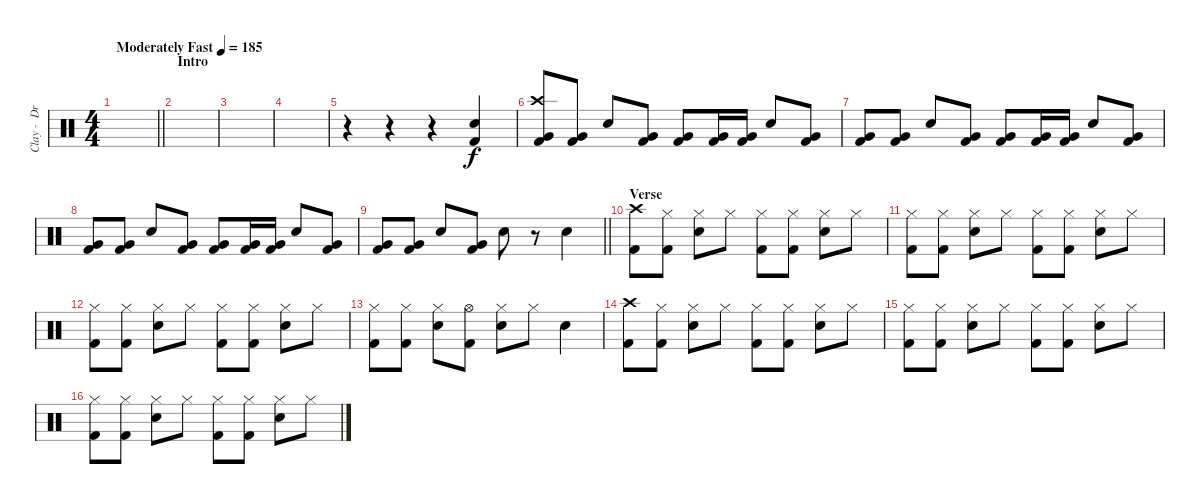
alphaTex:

\track ("Clay -  Drums" "Clay -  Dr") {instrument percussion}
\staff {score}
\articulation defaults
\ts (4 4)
\tempo (185 "Moderately Fast")
\clef neutral
\barLineRight lightlight
\ks c
|
\section ("" "Intro")
|
|
|
r.4 r.4 r.4 ("Electric Snare (hit)" "Kick (hit) 2").4 |
("Crash high (hit)" "Very Low Tom (hit)" "Kick (hit) 2").8 ("Very Low Tom (hit)" "Kick (hit) 2").8 "Electric Snare (hit)".8 ("Very Low Tom (hit)" "Kick (hit) 2").8 ("Very Low Tom (hit)" "Kick (hit) 2").8 ("Very Low Tom (hit)" "Kick (hit) 2").16 ("Very Low Tom (hit)" "Kick (hit) 2").16 "Electric Snare (hit)".8 ("Very Low Tom (hit)" "Kick (hit) 2").8 |
("Very Low Tom (hit)" "Kick (hit) 2").8 ("Very Low Tom (hit)" "Kick (hit) 2").8 "Electric Snare (hit)".8 ("Very Low Tom (hit)" "Kick (hit) 2").8 ("Very Low Tom (hit)" "Kick (hit) 2").8 ("Very Low Tom (hit)" "Kick (hit) 2").16 ("Very Low Tom (hit)" "Kick (hit) 2").16 "Electric Snare (hit)".8 ("Very Low Tom (hit)" "Kick (hit) 2").8 |
("Very Low Tom (hit)" "Kick (hit) 2").8 ("Very Low Tom (hit)" "Kick (hit) 2").8 "Electric Snare (hit)".8 ("Very Low Tom (hit)" "Kick (hit) 2").8 ("Very Low Tom (hit)" "Kick (hit) 2").8 ("Very Low Tom (hit)" "Kick (hit) 2").16 ("Very Low Tom (hit)" "Kick (hit) 2").16 "Electric Snare (hit)".8 ("Very Low Tom (hit)" "Kick (hit) 2").8 |
\barLineRight lightlight
("Very Low Tom (hit)" "Kick (hit) 2").8 ("Very Low Tom (hit)" "Kick (hit) 2").8 "Electric Snare (hit)".8 ("Very Low Tom (hit)" "Kick (hit) 2").8 "Electric Snare (hit)".8 r.8 "Electric Snare (hit)".4 |
\section ("" "Verse")
("Crash high (hit)" "Kick (hit) 2").8 ("Hi-Hat (closed)" "Kick (hit) 2").8 ("Hi-Hat (closed)" "Electric Snare (hit)").8 "Hi-Hat (closed)".8 ("Hi-Hat (closed)" "Kick (hit) 2").8 ("Hi-Hat (closed)" "Kick (hit) 2").8 ("Hi-Hat (closed)" "Electric Snare (hit)").8 "Hi-Hat (closed)".8 |
("Hi-Hat (closed)" "Kick (hit) 2").8 ("Hi-Hat (closed)" "Kick (hit) 2").8 ("Hi-Hat (closed)" "Electric Snare (hit)").8 "Hi-Hat (closed)".8 ("Hi-Hat (closed)" "Kick (hit) 2").8 ("Hi-Hat (closed)" "Kick (hit) 2").8 ("Hi-Hat (closed)" "Electric Snare (hit)").8 "Hi-Hat (closed)".8 |
("Hi-Hat (closed)" "Kick (hit) 2").8 ("Hi-Hat (closed)" "Kick (hit) 2").8 ("Hi-Hat (closed)" "Electric Snare (hit)").8 "Hi-Hat (closed)".8 ("Hi-Hat (closed)" "Kick (hit) 2").8 ("Hi-Hat (closed)" "Kick (hit) 2").8 ("Hi-Hat (closed)" "Electric Snare (hit)").8 "Hi-Hat (closed)".8 |
("Hi-Hat (closed)" "Kick (hit) 2").8 ("Hi-Hat (closed)" "Kick (hit) 2").8 ("Hi-Hat (closed)" "Electric Snare (hit)").8 ("Hi-Hat (open)" "Kick (hit) 2").8 ("Hi-Hat (closed)" "Electric Snare (hit)").8 "Hi-Hat (closed)".8 "Electric Snare (hit)".4 |
("Crash high (hit)" "Kick (hit) 2").8 ("Hi-Hat (closed)" "Kick (hit) 2").8 ("Hi-Hat (closed)" "Electric Snare (hit)").8 "Hi-Hat (closed)".8 ("Hi-Hat (closed)" "Kick (hit) 2").8 ("Hi-Hat (closed)" "Kick (hit) 2").8 ("Hi-Hat (closed)" "Electric Snare (hit)").8 "Hi-Hat (closed)".8 |
("Hi-Hat (closed)" "Kick (hit) 2").8 ("Hi-Hat (closed)" "Kick (hit) 2").8 ("Hi-Hat (closed)" "Electric Snare (hit)").8 "Hi-Hat (closed)".8 ("Hi-Hat (closed)" "Kick (hit) 2").8 ("Hi-Hat (closed)" "Kick (hit) 2").8 ("Hi-Hat (closed)" "Electric Snare (hit)").8 "Hi-Hat (closed)".8 |
("Hi-Hat (closed)" "Kick (hit) 2").8 ("Hi-Hat (closed)" "Kick (hit) 2").8 ("Hi-Hat (closed)" "Electric Snare (hit)").8 "Hi-Hat (closed)".8 ("Hi-Hat (closed)" "Kick (hit) 2").8 ("Hi-Hat (closed)" "Kick (hit) 2").8 ("Hi-Hat (closed)" "Electric Snare (hit)").8 "Hi-Hat (closed)".8
